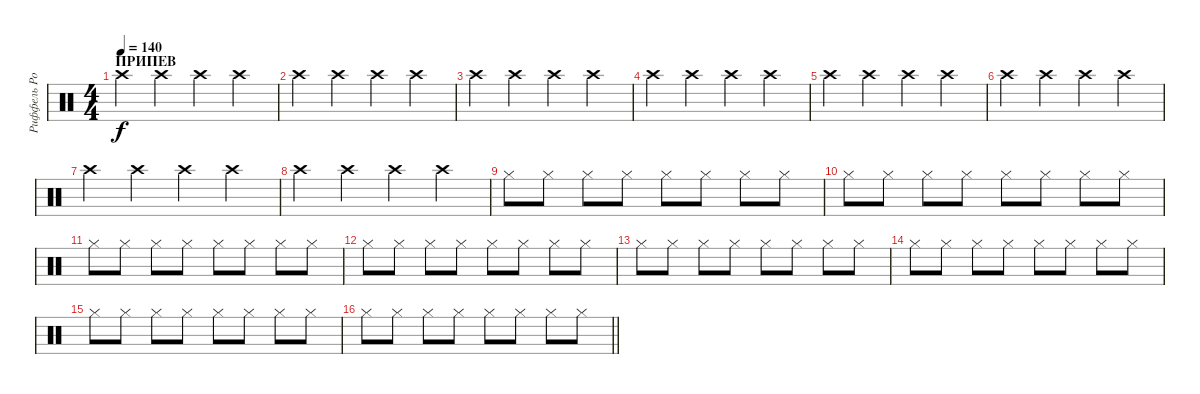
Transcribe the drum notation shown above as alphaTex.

\track ("Риффель Роман (хэты)" "Риффель Ро") {instrument percussion}
\staff {score}
\articulation defaults
\ts (4 4)
\section ("" "ПРИПЕВ")
\tempo 140
\clef neutral
\ks c "Crash high (hit)".4{dy f} "Crash high (hit)".4 "Crash high (hit)".4 "Crash high (hit)".4
|
"Crash high (hit)".4 "Crash high (hit)".4 "Crash high (hit)".4 "Crash high (hit)".4 |
"Crash high (hit)".4 "Crash high (hit)".4 "Crash high (hit)".4 "Crash high (hit)".4 |
"Crash high (hit)".4 "Crash high (hit)".4 "Crash high (hit)".4 "Crash high (hit)".4 |
"Crash high (hit)".4 "Crash high (hit)".4 "Crash high (hit)".4 "Crash high (hit)".4 |
"Crash high (hit)".4 "Crash high (hit)".4 "Crash high (hit)".4 "Crash high (hit)".4 |
"Crash high (hit)".4 "Crash high (hit)".4 "Crash high (hit)".4 "Crash high (hit)".4 |
"Crash high (hit)".4 "Crash high (hit)".4 "Crash high (hit)".4 "Crash high (hit)".4 |
"Hi-Hat (closed)".8 "Hi-Hat (closed)".8 "Hi-Hat (closed)".8 "Hi-Hat (closed)".8 "Hi-Hat (closed)".8 "Hi-Hat (closed)".8 "Hi-Hat (closed)".8 "Hi-Hat (closed)".8 |
"Hi-Hat (closed)".8 "Hi-Hat (closed)".8 "Hi-Hat (closed)".8 "Hi-Hat (closed)".8 "Hi-Hat (closed)".8 "Hi-Hat (closed)".8 "Hi-Hat (closed)".8 "Hi-Hat (closed)".8 |
"Hi-Hat (closed)".8 "Hi-Hat (closed)".8 "Hi-Hat (closed)".8 "Hi-Hat (closed)".8 "Hi-Hat (closed)".8 "Hi-Hat (closed)".8 "Hi-Hat (closed)".8 "Hi-Hat (closed)".8 |
"Hi-Hat (closed)".8 "Hi-Hat (closed)".8 "Hi-Hat (closed)".8 "Hi-Hat (closed)".8 "Hi-Hat (closed)".8 "Hi-Hat (closed)".8 "Hi-Hat (closed)".8 "Hi-Hat (closed)".8 |
"Hi-Hat (closed)".8 "Hi-Hat (closed)".8 "Hi-Hat (closed)".8 "Hi-Hat (closed)".8 "Hi-Hat (closed)".8 "Hi-Hat (closed)".8 "Hi-Hat (closed)".8 "Hi-Hat (closed)".8 |
"Hi-Hat (closed)".8 "Hi-Hat (closed)".8 "Hi-Hat (closed)".8 "Hi-Hat (closed)".8 "Hi-Hat (closed)".8 "Hi-Hat (closed)".8 "Hi-Hat (closed)".8 "Hi-Hat (closed)".8 |
"Hi-Hat (closed)".8 "Hi-Hat (closed)".8 "Hi-Hat (closed)".8 "Hi-Hat (closed)".8 "Hi-Hat (closed)".8 "Hi-Hat (closed)".8 "Hi-Hat (closed)".8 "Hi-Hat (closed)".8 |
\barLineRight lightlight "Hi-Hat (closed)".8 "Hi-Hat (closed)".8 "Hi-Hat (closed)".8 "Hi-Hat (closed)".8 "Hi-Hat (closed)".8 "Hi-Hat (closed)".8 "Hi-Hat (closed)".8 "Hi-Hat (closed)".8
